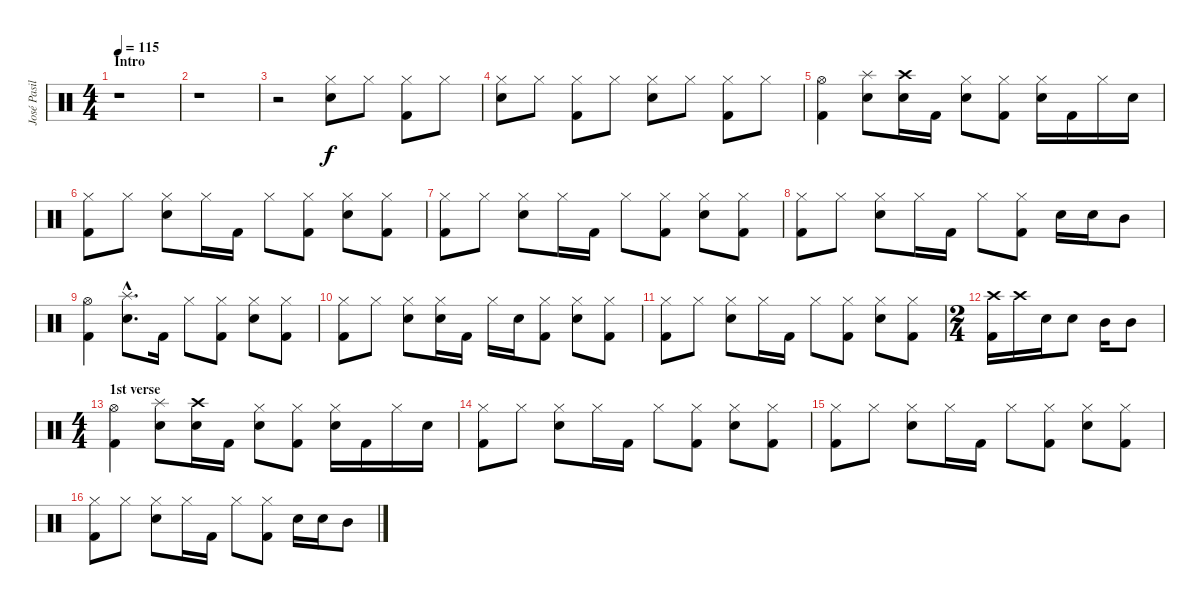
\track ("José Pasillas" "José Pasil") {instrument percussion}
\staff {score}
\articulation defaults
\ts (4 4)
\section ("" "Intro")
\tempo 115
\clef neutral
\ks c
r.1{dy f} |
r.1 |
r.2 ("Hi-Hat (closed)" "Electric Snare (hit)").8 "Hi-Hat (closed)".8 ("Hi-Hat (closed)" "Kick (hit) 2").8 "Hi-Hat (closed)".8 |
("Hi-Hat (closed)" "Electric Snare (hit)").8 "Hi-Hat (closed)".8 ("Hi-Hat (closed)" "Kick (hit) 2").8 "Hi-Hat (closed)".8 ("Hi-Hat (closed)" "Electric Snare (hit)").8 "Hi-Hat (closed)".8 ("Hi-Hat (closed)" "Kick (hit) 2").8 "Hi-Hat (closed)".8 |
("Hi-Hat (open)" "Kick (hit) 2").4 ("Splash (hit)" "Electric Snare (hit)").8 ("Crash high (hit)" "Electric Snare (hit)").16 "Kick (hit) 2".16 ("Hi-Hat (closed)" "Electric Snare (hit)").8 ("Hi-Hat (closed)" "Kick (hit) 2").8 ("Hi-Hat (closed)" "Electric Snare (hit)").16 "Kick (hit) 2".16 "Hi-Hat (closed)".16 "Electric Snare (hit)".16 |
("Hi-Hat (closed)" "Kick (hit) 2").8 "Hi-Hat (closed)".8 ("Hi-Hat (closed)" "Electric Snare (hit)").8 "Hi-Hat (closed)".16 "Kick (hit) 2".16 "Hi-Hat (closed)".8 ("Hi-Hat (closed)" "Kick (hit) 2").8 ("Hi-Hat (closed)" "Electric Snare (hit)").8 ("Hi-Hat (closed)" "Kick (hit) 2").8 |
("Hi-Hat (closed)" "Kick (hit) 2").8 "Hi-Hat (closed)".8 ("Hi-Hat (closed)" "Electric Snare (hit)").8 "Hi-Hat (closed)".16 "Kick (hit) 2".16 "Hi-Hat (closed)".8 ("Hi-Hat (closed)" "Kick (hit) 2").8 ("Hi-Hat (closed)" "Electric Snare (hit)").8 ("Hi-Hat (closed)" "Kick (hit) 2").8 |
("Hi-Hat (closed)" "Kick (hit) 2").8 "Hi-Hat (closed)".8 ("Hi-Hat (closed)" "Electric Snare (hit)").8 "Hi-Hat (closed)".16 "Kick (hit) 2".16 "Hi-Hat (closed)".8 ("Hi-Hat (closed)" "Kick (hit) 2").8 "Electric Snare (hit)".16 "Electric Snare (hit)".16 "Mid Tom (hit)".8 |
("Hi-Hat (open)" "Kick (hit) 2").4 ("Splash (hit)"{hac} "Electric Snare (hit)"{hac}).8{d} "Kick (hit) 2".16 "Hi-Hat (closed)".8 ("Hi-Hat (closed)" "Kick (hit) 2").8 ("Hi-Hat (closed)" "Electric Snare (hit)").8 ("Hi-Hat (closed)" "Kick (hit) 2").8 |
("Hi-Hat (closed)" "Kick (hit) 2").8 "Hi-Hat (closed)".8 ("Hi-Hat (closed)" "Electric Snare (hit)").8 ("Hi-Hat (closed)" "Electric Snare (hit)").16 "Kick (hit) 2".16 "Hi-Hat (closed)".16 "Electric Snare (hit)".16 ("Hi-Hat (closed)" "Kick (hit) 2").8 ("Hi-Hat (closed)" "Electric Snare (hit)").8 ("Hi-Hat (closed)" "Kick (hit) 2").8 |
("Hi-Hat (closed)" "Kick (hit) 2").8 "Hi-Hat (closed)".8 ("Hi-Hat (closed)" "Electric Snare (hit)").8 "Hi-Hat (closed)".16 "Kick (hit) 2".16 "Hi-Hat (closed)".8 ("Hi-Hat (closed)" "Kick (hit) 2").8 ("Hi-Hat (closed)" "Electric Snare (hit)").8 ("Hi-Hat (closed)" "Kick (hit) 2").8 |
\ts (2 4)
("Crash high (hit)" "Kick (hit) 2").16 "Crash high (hit)".16 "Electric Snare (hit)".16 "Electric Snare (hit)".8 "Mid Tom (hit)".16 "Mid Tom (hit)".8 |
\ts (4 4)
\section ("" "1st verse")
("Hi-Hat (open)" "Kick (hit) 2").4 ("Splash (hit)" "Electric Snare (hit)").8 ("Crash high (hit)" "Electric Snare (hit)").16 "Kick (hit) 2".16 ("Hi-Hat (closed)" "Electric Snare (hit)").8 ("Hi-Hat (closed)" "Kick (hit) 2").8 ("Hi-Hat (closed)" "Electric Snare (hit)").16 "Kick (hit) 2".16 "Hi-Hat (closed)".16 "Electric Snare (hit)".16 |
("Hi-Hat (closed)" "Kick (hit) 2").8 "Hi-Hat (closed)".8 ("Hi-Hat (closed)" "Electric Snare (hit)").8 "Hi-Hat (closed)".16 "Kick (hit) 2".16 "Hi-Hat (closed)".8 ("Hi-Hat (closed)" "Kick (hit) 2").8 ("Hi-Hat (closed)" "Electric Snare (hit)").8 ("Hi-Hat (closed)" "Kick (hit) 2").8 |
("Hi-Hat (closed)" "Kick (hit) 2").8 "Hi-Hat (closed)".8 ("Hi-Hat (closed)" "Electric Snare (hit)").8 "Hi-Hat (closed)".16 "Kick (hit) 2".16 "Hi-Hat (closed)".8 ("Hi-Hat (closed)" "Kick (hit) 2").8 ("Hi-Hat (closed)" "Electric Snare (hit)").8 ("Hi-Hat (closed)" "Kick (hit) 2").8 |
("Hi-Hat (closed)" "Kick (hit) 2").8 "Hi-Hat (closed)".8 ("Hi-Hat (closed)" "Electric Snare (hit)").8 "Hi-Hat (closed)".16 "Kick (hit) 2".16 "Hi-Hat (closed)".8 ("Hi-Hat (closed)" "Kick (hit) 2").8 "Electric Snare (hit)".16 "Electric Snare (hit)".16 "Mid Tom (hit)".8
